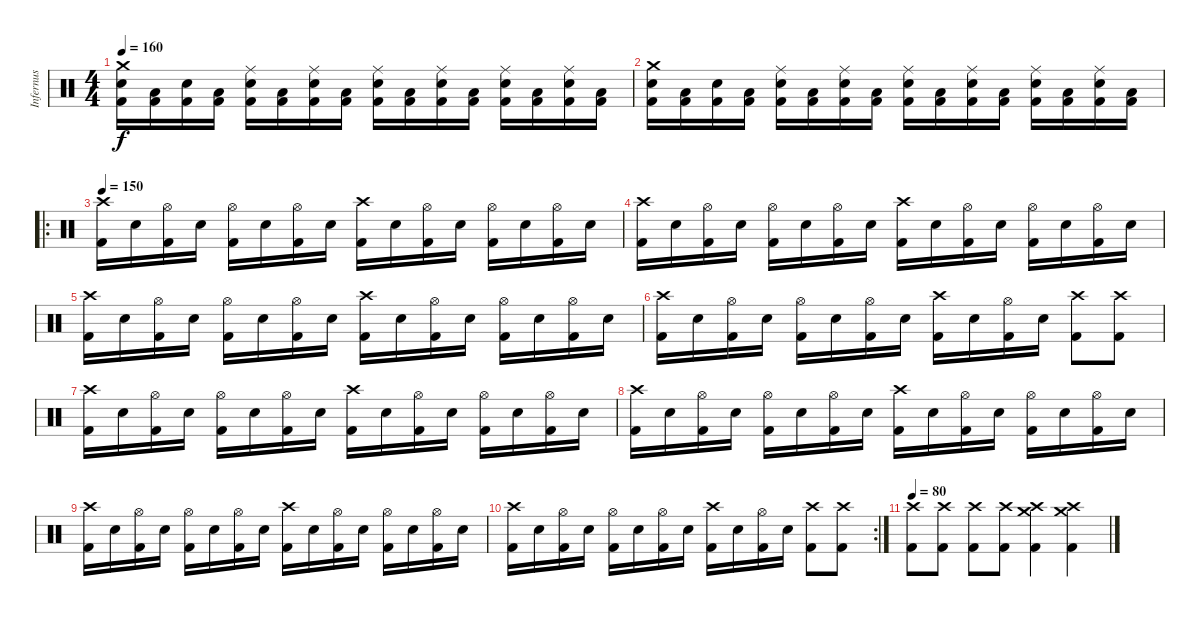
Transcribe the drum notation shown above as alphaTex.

\track ("Infernus" "Infernus") {instrument percussion}
\staff {score}
\articulation defaults
\ts (4 4)
\tempo 160
\clef neutral
\ks c
("Crash medium (hit)" "Electric Snare (hit)" "Kick (hit) 2").16{dy f} ("Low Tom (hit)" "Kick (hit) 2").16 ("Electric Snare (hit)" "Kick (hit) 2").16 ("Low Tom (hit)" "Kick (hit) 2").16 ("Ride (middle)" "Electric Snare (hit)" "Kick (hit) 2").16 ("Low Tom (hit)" "Kick (hit) 2").16 ("Ride (middle)" "Electric Snare (hit)" "Kick (hit) 2").16 ("Low Tom (hit)" "Kick (hit) 2").16 ("Ride (middle)" "Electric Snare (hit)" "Kick (hit) 2").16 ("Low Tom (hit)" "Kick (hit) 2").16 ("Ride (middle)" "Electric Snare (hit)" "Kick (hit) 2").16 ("Low Tom (hit)" "Kick (hit) 2").16 ("Ride (middle)" "Electric Snare (hit)" "Kick (hit) 2").16 ("Low Tom (hit)" "Kick (hit) 2").16 ("Ride (middle)" "Electric Snare (hit)" "Kick (hit) 2").16 ("Low Tom (hit)" "Kick (hit) 2").16 |
("Crash medium (hit)" "Electric Snare (hit)" "Kick (hit) 2").16 ("Low Tom (hit)" "Kick (hit) 2").16 ("Electric Snare (hit)" "Kick (hit) 2").16 ("Low Tom (hit)" "Kick (hit) 2").16 ("Ride (middle)" "Electric Snare (hit)" "Kick (hit) 2").16 ("Low Tom (hit)" "Kick (hit) 2").16 ("Ride (middle)" "Electric Snare (hit)" "Kick (hit) 2").16 ("Low Tom (hit)" "Kick (hit) 2").16 ("Ride (middle)" "Electric Snare (hit)" "Kick (hit) 2").16 ("Low Tom (hit)" "Kick (hit) 2").16 ("Ride (middle)" "Electric Snare (hit)" "Kick (hit) 2").16 ("Low Tom (hit)" "Kick (hit) 2").16 ("Ride (middle)" "Electric Snare (hit)" "Kick (hit) 2").16 ("Low Tom (hit)" "Kick (hit) 2").16 ("Ride (middle)" "Electric Snare (hit)" "Kick (hit) 2").16 ("Low Tom (hit)" "Kick (hit) 2").16 |
\ro
\tempo 150
("Crash high (hit)" "Kick (hit) 2").16 "Electric Snare (hit)".16 ("Hi-Hat (open)" "Kick (hit) 2").16 "Electric Snare (hit)".16 ("Hi-Hat (open)" "Kick (hit) 2").16 "Electric Snare (hit)".16 ("Hi-Hat (open)" "Kick (hit) 2").16 "Electric Snare (hit)".16 ("Crash high (hit)" "Kick (hit) 2").16 "Electric Snare (hit)".16 ("Hi-Hat (open)" "Kick (hit) 2").16 "Electric Snare (hit)".16 ("Hi-Hat (open)" "Kick (hit) 2").16 "Electric Snare (hit)".16 ("Hi-Hat (open)" "Kick (hit) 2").16 "Electric Snare (hit)".16 |
("Crash high (hit)" "Kick (hit) 2").16 "Electric Snare (hit)".16 ("Hi-Hat (open)" "Kick (hit) 2").16 "Electric Snare (hit)".16 ("Hi-Hat (open)" "Kick (hit) 2").16 "Electric Snare (hit)".16 ("Hi-Hat (open)" "Kick (hit) 2").16 "Electric Snare (hit)".16 ("Crash high (hit)" "Kick (hit) 2").16 "Electric Snare (hit)".16 ("Hi-Hat (open)" "Kick (hit) 2").16 "Electric Snare (hit)".16 ("Hi-Hat (open)" "Kick (hit) 2").16 "Electric Snare (hit)".16 ("Hi-Hat (open)" "Kick (hit) 2").16 "Electric Snare (hit)".16 |
("Crash high (hit)" "Kick (hit) 2").16 "Electric Snare (hit)".16 ("Hi-Hat (open)" "Kick (hit) 2").16 "Electric Snare (hit)".16 ("Hi-Hat (open)" "Kick (hit) 2").16 "Electric Snare (hit)".16 ("Hi-Hat (open)" "Kick (hit) 2").16 "Electric Snare (hit)".16 ("Crash high (hit)" "Kick (hit) 2").16 "Electric Snare (hit)".16 ("Hi-Hat (open)" "Kick (hit) 2").16 "Electric Snare (hit)".16 ("Hi-Hat (open)" "Kick (hit) 2").16 "Electric Snare (hit)".16 ("Hi-Hat (open)" "Kick (hit) 2").16 "Electric Snare (hit)".16 |
("Crash high (hit)" "Kick (hit) 2").16 "Electric Snare (hit)".16 ("Hi-Hat (open)" "Kick (hit) 2").16 "Electric Snare (hit)".16 ("Hi-Hat (open)" "Kick (hit) 2").16 "Electric Snare (hit)".16 ("Hi-Hat (open)" "Kick (hit) 2").16 "Electric Snare (hit)".16 ("Crash high (hit)" "Kick (hit) 2").16 "Electric Snare (hit)".16 ("Hi-Hat (open)" "Kick (hit) 2").16 "Electric Snare (hit)".16 ("Crash high (hit)" "Kick (hit) 2").8 ("Crash high (hit)" "Kick (hit) 2").8 |
("Crash high (hit)" "Kick (hit) 2").16 "Electric Snare (hit)".16 ("Hi-Hat (open)" "Kick (hit) 2").16 "Electric Snare (hit)".16 ("Hi-Hat (open)" "Kick (hit) 2").16 "Electric Snare (hit)".16 ("Hi-Hat (open)" "Kick (hit) 2").16 "Electric Snare (hit)".16 ("Crash high (hit)" "Kick (hit) 2").16 "Electric Snare (hit)".16 ("Hi-Hat (open)" "Kick (hit) 2").16 "Electric Snare (hit)".16 ("Hi-Hat (open)" "Kick (hit) 2").16 "Electric Snare (hit)".16 ("Hi-Hat (open)" "Kick (hit) 2").16 "Electric Snare (hit)".16 |
("Crash high (hit)" "Kick (hit) 2").16 "Electric Snare (hit)".16 ("Hi-Hat (open)" "Kick (hit) 2").16 "Electric Snare (hit)".16 ("Hi-Hat (open)" "Kick (hit) 2").16 "Electric Snare (hit)".16 ("Hi-Hat (open)" "Kick (hit) 2").16 "Electric Snare (hit)".16 ("Crash high (hit)" "Kick (hit) 2").16 "Electric Snare (hit)".16 ("Hi-Hat (open)" "Kick (hit) 2").16 "Electric Snare (hit)".16 ("Hi-Hat (open)" "Kick (hit) 2").16 "Electric Snare (hit)".16 ("Hi-Hat (open)" "Kick (hit) 2").16 "Electric Snare (hit)".16 |
("Crash high (hit)" "Kick (hit) 2").16 "Electric Snare (hit)".16 ("Hi-Hat (open)" "Kick (hit) 2").16 "Electric Snare (hit)".16 ("Hi-Hat (open)" "Kick (hit) 2").16 "Electric Snare (hit)".16 ("Hi-Hat (open)" "Kick (hit) 2").16 "Electric Snare (hit)".16 ("Crash high (hit)" "Kick (hit) 2").16 "Electric Snare (hit)".16 ("Hi-Hat (open)" "Kick (hit) 2").16 "Electric Snare (hit)".16 ("Hi-Hat (open)" "Kick (hit) 2").16 "Electric Snare (hit)".16 ("Hi-Hat (open)" "Kick (hit) 2").16 "Electric Snare (hit)".16 |
\rc 2
("Crash high (hit)" "Kick (hit) 2").16 "Electric Snare (hit)".16 ("Hi-Hat (open)" "Kick (hit) 2").16 "Electric Snare (hit)".16 ("Hi-Hat (open)" "Kick (hit) 2").16 "Electric Snare (hit)".16 ("Hi-Hat (open)" "Kick (hit) 2").16 "Electric Snare (hit)".16 ("Crash high (hit)" "Kick (hit) 2").16 "Electric Snare (hit)".16 ("Hi-Hat (open)" "Kick (hit) 2").16 "Electric Snare (hit)".16 ("Crash high (hit)" "Kick (hit) 2").8 ("Crash high (hit)" "Kick (hit) 2").8 |
\tempo 80
("Crash high (hit)" "Kick (hit) 2").8 ("Crash high (hit)" "Kick (hit) 2").8 ("Crash high (hit)" "Kick (hit) 2").8 ("Crash high (hit)" "Kick (hit) 2").8 ("Crash medium (hit)" "Crash high (hit)" "Kick (hit) 2").4 ("Crash medium (hit)" "Crash high (hit)" "Kick (hit) 2").4
